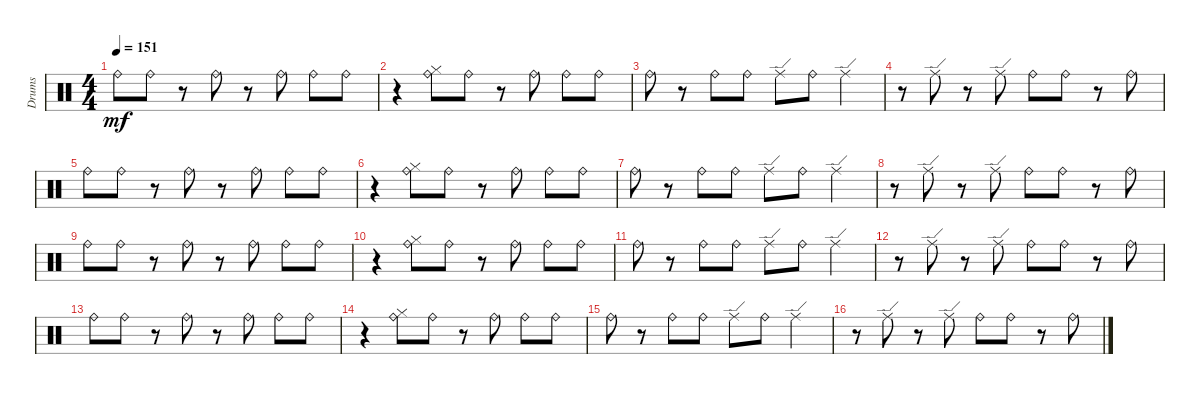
\bracketExtendMode groupsimilarinstruments
\track ("Drumkit" "Drums") {instrument percussion}
\staff {score}
\articulation defaults
\ts (4 4)
\tempo 151
\clef neutral
\ks aminor "Ride (bell)".8{dy mf} "Ride (bell)".8
r.8 "Ride (bell)".8 r.8 "Ride (bell)".8 "Ride (bell)".8 "Ride (bell)".8 |
r.4 ("Ride (bell)" "Hi-Hat (closed)").8 "Ride (bell)".8 r.8 "Ride (bell)".8 "Ride (bell)".8 "Ride (bell)".8 |
"Ride (bell)".8 r.8 "Ride (bell)".8 "Ride (bell)".8 "Ride (edge)".8 "Ride (bell)".8 "Ride (edge)".4 |
r.8 "Ride (edge)".8 r.8 "Ride (edge)".8 "Ride (bell)".8 "Ride (bell)".8 r.8 "Ride (bell)".8 |
"Ride (bell)".8 "Ride (bell)".8 r.8 "Ride (bell)".8 r.8 "Ride (bell)".8 "Ride (bell)".8 "Ride (bell)".8 |
r.4 ("Ride (bell)" "Hi-Hat (closed)").8 "Ride (bell)".8 r.8 "Ride (bell)".8 "Ride (bell)".8 "Ride (bell)".8 |
"Ride (bell)".8 r.8 "Ride (bell)".8 "Ride (bell)".8 "Ride (edge)".8 "Ride (bell)".8 "Ride (edge)".4 |
r.8 "Ride (edge)".8 r.8 "Ride (edge)".8 "Ride (bell)".8 "Ride (bell)".8 r.8 "Ride (bell)".8 |
"Ride (bell)".8 "Ride (bell)".8 r.8 "Ride (bell)".8 r.8 "Ride (bell)".8 "Ride (bell)".8 "Ride (bell)".8 |
r.4 ("Ride (bell)" "Hi-Hat (closed)").8 "Ride (bell)".8 r.8 "Ride (bell)".8 "Ride (bell)".8 "Ride (bell)".8 |
"Ride (bell)".8 r.8 "Ride (bell)".8 "Ride (bell)".8 "Ride (edge)".8 "Ride (bell)".8 "Ride (edge)".4 |
r.8 "Ride (edge)".8 r.8 "Ride (edge)".8 "Ride (bell)".8 "Ride (bell)".8 r.8 "Ride (bell)".8 |
"Ride (bell)".8 "Ride (bell)".8 r.8 "Ride (bell)".8 r.8 "Ride (bell)".8 "Ride (bell)".8 "Ride (bell)".8 |
r.4 ("Ride (bell)" "Hi-Hat (closed)").8 "Ride (bell)".8 r.8 "Ride (bell)".8 "Ride (bell)".8 "Ride (bell)".8 |
"Ride (bell)".8 r.8 "Ride (bell)".8 "Ride (bell)".8 "Ride (edge)".8 "Ride (bell)".8 "Ride (edge)".4 |
r.8 "Ride (edge)".8 r.8 "Ride (edge)".8 "Ride (bell)".8 "Ride (bell)".8 r.8 "Ride (bell)".8
